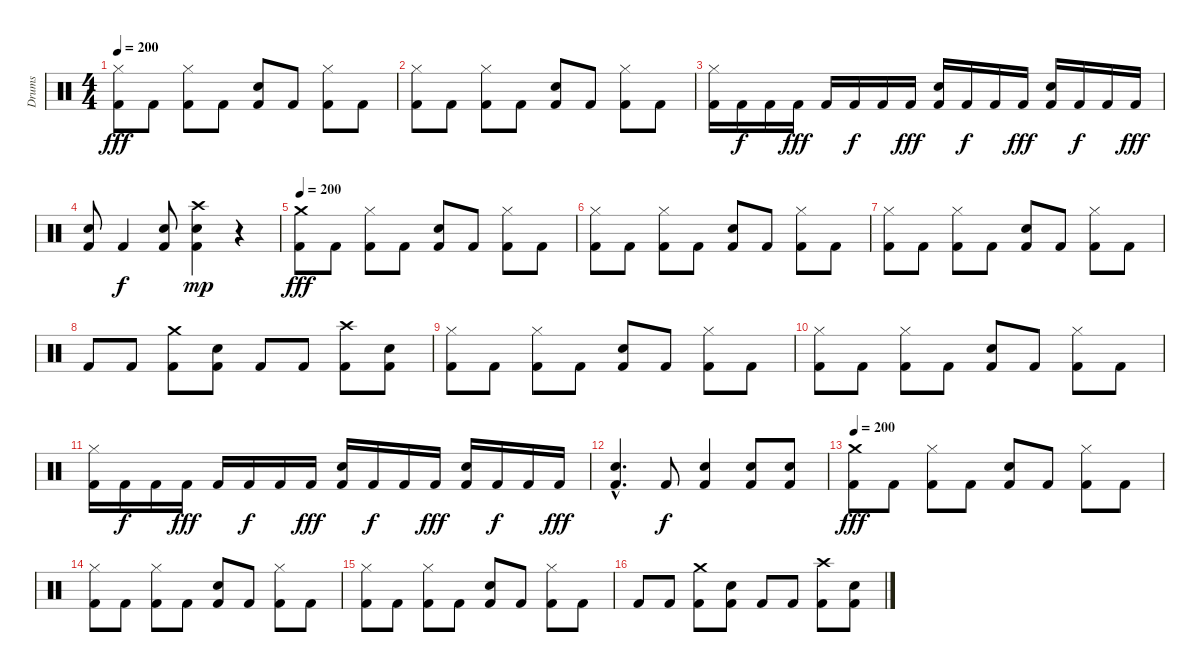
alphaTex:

\track ("Drums" "Drums") {instrument percussion}
\staff {score}
\articulation defaults
\ts (4 4)
\tempo 200
\clef neutral
\ks c
("Hi-Hat (closed)" "Kick (hit) 2").8{dy fff} "Kick (hit) 2".8 ("Hi-Hat (closed)" "Kick (hit) 2").8 "Kick (hit) 2".8 ("Electric Snare (hit)" "Kick (hit) 2").8 "Kick (hit) 2".8 ("Hi-Hat (closed)" "Kick (hit) 2").8 "Kick (hit) 2".8 |
("Hi-Hat (closed)" "Kick (hit) 2").8 "Kick (hit) 2".8 ("Hi-Hat (closed)" "Kick (hit) 2").8 "Kick (hit) 2".8 ("Electric Snare (hit)" "Kick (hit) 2").8 "Kick (hit) 2".8 ("Hi-Hat (closed)" "Kick (hit) 2").8 "Kick (hit) 2".8 |
("Hi-Hat (closed)" "Kick (hit) 2").16 "Kick (hit) 2".16{dy f} "Kick (hit) 2".16 "Kick (hit) 2".16{dy fff} "Kick (hit) 2".16 "Kick (hit) 2".16{dy f} "Kick (hit) 2".16 "Kick (hit) 2".16{dy fff} ("Electric Snare (hit)" "Kick (hit) 2").16 "Kick (hit) 2".16{dy f} "Kick (hit) 2".16 "Kick (hit) 2".16{dy fff} ("Electric Snare (hit)" "Kick (hit) 2").16 "Kick (hit) 2".16{dy f} "Kick (hit) 2".16 "Kick (hit) 2".16{dy fff} |
("Electric Snare (hit)" "Kick (hit) 2").8 "Kick (hit) 2".4{dy f} ("Electric Snare (hit)" "Kick (hit) 2").8 ("Crash high (hit)" "Electric Snare (hit)" "Kick (hit) 2").4{dy mp} r.4 |
\tempo 200
("Crash medium (hit)" "Kick (hit) 2").8{dy fff} "Kick (hit) 2".8 ("Hi-Hat (closed)" "Kick (hit) 2").8 "Kick (hit) 2".8 ("Electric Snare (hit)" "Kick (hit) 2").8 "Kick (hit) 2".8 ("Hi-Hat (closed)" "Kick (hit) 2").8 "Kick (hit) 2".8 |
("Hi-Hat (closed)" "Kick (hit) 2").8 "Kick (hit) 2".8 ("Hi-Hat (closed)" "Kick (hit) 2").8 "Kick (hit) 2".8 ("Electric Snare (hit)" "Kick (hit) 2").8 "Kick (hit) 2".8 ("Hi-Hat (closed)" "Kick (hit) 2").8 "Kick (hit) 2".8 |
("Hi-Hat (closed)" "Kick (hit) 2").8 "Kick (hit) 2".8 ("Hi-Hat (closed)" "Kick (hit) 2").8 "Kick (hit) 2".8 ("Electric Snare (hit)" "Kick (hit) 2").8 "Kick (hit) 2".8 ("Hi-Hat (closed)" "Kick (hit) 2").8 "Kick (hit) 2".8 |
"Kick (hit) 2".8 "Kick (hit) 2".8 ("Crash medium (hit)" "Kick (hit) 2").8 ("Electric Snare (hit)" "Kick (hit) 2").8 "Kick (hit) 2".8 "Kick (hit) 2".8 ("Crash high (hit)" "Kick (hit) 2").8 ("Electric Snare (hit)" "Kick (hit) 2").8 |
("Hi-Hat (closed)" "Kick (hit) 2").8 "Kick (hit) 2".8 ("Hi-Hat (closed)" "Kick (hit) 2").8 "Kick (hit) 2".8 ("Electric Snare (hit)" "Kick (hit) 2").8 "Kick (hit) 2".8 ("Hi-Hat (closed)" "Kick (hit) 2").8 "Kick (hit) 2".8 |
("Hi-Hat (closed)" "Kick (hit) 2").8 "Kick (hit) 2".8 ("Hi-Hat (closed)" "Kick (hit) 2").8 "Kick (hit) 2".8 ("Electric Snare (hit)" "Kick (hit) 2").8 "Kick (hit) 2".8 ("Hi-Hat (closed)" "Kick (hit) 2").8 "Kick (hit) 2".8 |
("Hi-Hat (closed)" "Kick (hit) 2").16 "Kick (hit) 2".16{dy f} "Kick (hit) 2".16 "Kick (hit) 2".16{dy fff} "Kick (hit) 2".16 "Kick (hit) 2".16{dy f} "Kick (hit) 2".16 "Kick (hit) 2".16{dy fff} ("Electric Snare (hit)" "Kick (hit) 2").16 "Kick (hit) 2".16{dy f} "Kick (hit) 2".16 "Kick (hit) 2".16{dy fff} ("Electric Snare (hit)" "Kick (hit) 2").16 "Kick (hit) 2".16{dy f} "Kick (hit) 2".16 "Kick (hit) 2".16{dy fff} |
("Electric Snare (hit)"{hac} "Kick (hit) 2"{hac}).4{d} "Kick (hit) 2".8{dy f} ("Electric Snare (hit)" "Kick (hit) 2").4 ("Electric Snare (hit)" "Kick (hit) 2").8 ("Electric Snare (hit)" "Kick (hit) 2").8 |
\tempo 200
("Crash medium (hit)" "Kick (hit) 2").8{dy fff} "Kick (hit) 2".8 ("Hi-Hat (closed)" "Kick (hit) 2").8 "Kick (hit) 2".8 ("Electric Snare (hit)" "Kick (hit) 2").8 "Kick (hit) 2".8 ("Hi-Hat (closed)" "Kick (hit) 2").8 "Kick (hit) 2".8 |
("Hi-Hat (closed)" "Kick (hit) 2").8 "Kick (hit) 2".8 ("Hi-Hat (closed)" "Kick (hit) 2").8 "Kick (hit) 2".8 ("Electric Snare (hit)" "Kick (hit) 2").8 "Kick (hit) 2".8 ("Hi-Hat (closed)" "Kick (hit) 2").8 "Kick (hit) 2".8 |
("Hi-Hat (closed)" "Kick (hit) 2").8 "Kick (hit) 2".8 ("Hi-Hat (closed)" "Kick (hit) 2").8 "Kick (hit) 2".8 ("Electric Snare (hit)" "Kick (hit) 2").8 "Kick (hit) 2".8 ("Hi-Hat (closed)" "Kick (hit) 2").8 "Kick (hit) 2".8 |
"Kick (hit) 2".8 "Kick (hit) 2".8 ("Crash medium (hit)" "Kick (hit) 2").8 ("Electric Snare (hit)" "Kick (hit) 2").8 "Kick (hit) 2".8 "Kick (hit) 2".8 ("Crash high (hit)" "Kick (hit) 2").8 ("Electric Snare (hit)" "Kick (hit) 2").8
